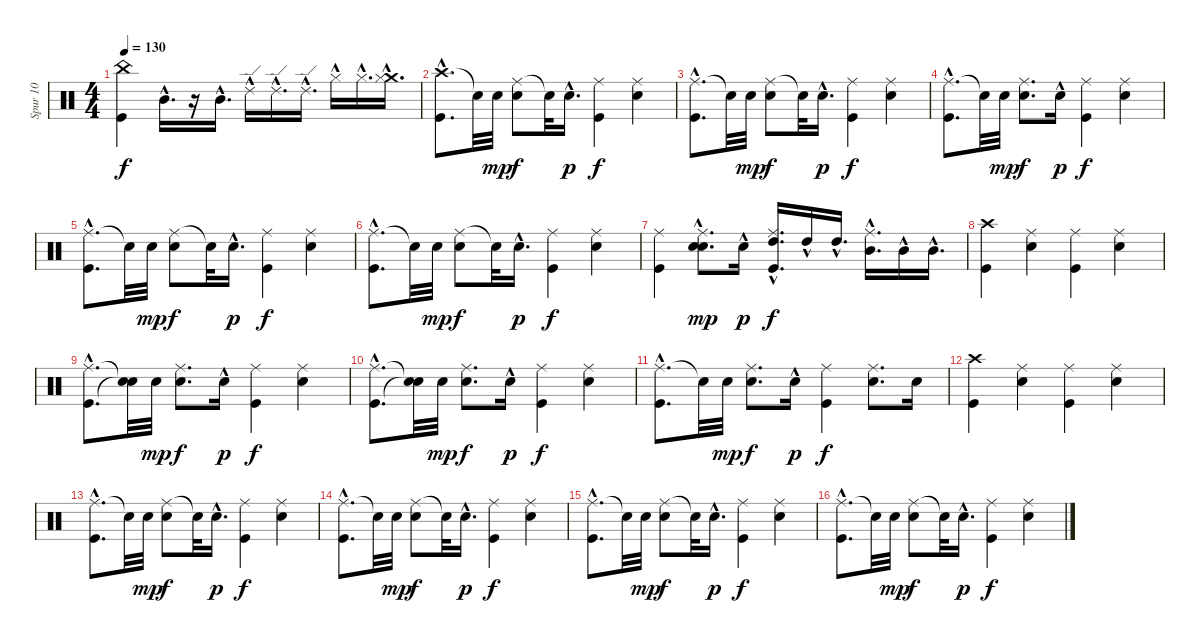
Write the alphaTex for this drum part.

\track ("Spur 10" "Spur 10") {instrument percussion}
\staff {score}
\articulation defaults
\ts (4 4)
\tempo 130
\clef neutral
\ks c
("China (hit)" "Kick (hit)").4{dy f} "Mid Tom (hit)"{hac}.16{d} r.16 "Mid Tom (hit)"{hac}.16{d} "Ride (edge) 2"{hac}.16 "Ride (edge) 2"{hac}.16{d} "Ride (edge) 2"{hac}.16{d} "Hi-Hat (closed)"{hac}.16 "Hi-Hat (closed)"{hac}.16{d} ("Crash medium (hit)" "Hi-Hat (closed)"{hac}).16{d} |
("Crash high (hit)" "Kick (hit)"{hac}).8{d} "Snare (hit)"{t}.32 "Electric Snare (hit)".32{dy mp} ("Ride (middle)" "Electric Snare (hit)").8{dy f} "Snare (hit)"{t}.32 "Electric Snare (hit)"{hac}.16{d dy p} ("Ride (middle)" "Kick (hit)").4{dy f} ("Ride (middle)" "Electric Snare (hit)").4 |
("Ride (middle)" "Kick (hit)"{hac}).8{d} "Snare (hit)"{t}.32 "Electric Snare (hit)".32{dy mp} ("Ride (middle)" "Electric Snare (hit)").8{dy f} "Snare (hit)"{t}.32 "Electric Snare (hit)"{hac}.16{d dy p} ("Ride (middle)" "Kick (hit)").4{dy f} ("Ride (middle)" "Electric Snare (hit)").4 |
("Ride (middle)" "Kick (hit)"{hac}).8{d} "Snare (hit)"{t}.32 "Electric Snare (hit)".32{dy mp} ("Ride (middle)" "Electric Snare (hit)").8{d dy f} "Electric Snare (hit)"{hac}.16{dy p} ("Ride (middle)" "Kick (hit)").4{dy f} ("Ride (middle)" "Electric Snare (hit)").4 |
("Ride (middle)" "Kick (hit)"{hac}).8{d} "Snare (hit)"{t}.32 "Electric Snare (hit)".32{dy mp} ("Ride (middle)" "Electric Snare (hit)").8{dy f} "Snare (hit)"{t}.32 "Electric Snare (hit)"{hac}.16{d dy p} ("Ride (middle)" "Kick (hit)").4{dy f} ("Ride (middle)" "Electric Snare (hit)").4 |
("Ride (middle)" "Kick (hit)"{hac}).8{d} "Snare (hit)"{t}.32 "Electric Snare (hit)".32{dy mp} ("Ride (middle)" "Electric Snare (hit)").8{dy f} "Snare (hit)"{t}.32 "Electric Snare (hit)"{hac}.16{d dy p} ("Ride (middle)" "Kick (hit)").4{dy f} ("Ride (middle)" "Electric Snare (hit)").4 |
("Ride (middle)" "Kick (hit)").4 ("Electric Snare (hit)"{hac} "Ride (middle)" "Electric Snare (hit)").8{d dy mp} "Electric Snare (hit)"{hac}.16{dy p} ("High Tom (hit)"{hac} "Ride (middle)" "Kick (hit)").16{d dy f} "High Tom (hit)"{hac}.16 "High Tom (hit)"{hac}.16{d} ("Mid Tom (hit)"{hac} "Ride (middle)").16{d} "Mid Tom (hit)"{hac}.16 "Mid Tom (hit)"{hac}.16{d} |
("Crash high (hit)" "Kick (hit)").4 ("Ride (middle)" "Electric Snare (hit)").4 ("Ride (middle)" "Kick (hit)").4 ("Ride (middle)" "Electric Snare (hit)").4 |
("Ride (middle)"{hac} "Kick (hit)"{hac}).8{d} ("Snare (hit)"{t} "Snare (hit)"{t}).32 "Electric Snare (hit)".32{dy mp} ("Ride (middle)" "Electric Snare (hit)").8{d dy f} "Electric Snare (hit)"{hac}.16{dy p} ("Ride (middle)" "Kick (hit)").4{dy f} ("Ride (middle)" "Electric Snare (hit)").4 |
("Ride (middle)"{hac} "Kick (hit)"{hac}).8{d} ("Snare (hit)"{t} "Snare (hit)"{t}).32 "Electric Snare (hit)".32{dy mp} ("Ride (middle)" "Electric Snare (hit)").8{d dy f} "Electric Snare (hit)"{hac}.16{dy p} ("Ride (middle)" "Kick (hit)").4{dy f} ("Ride (middle)" "Electric Snare (hit)").4 |
("Ride (middle)" "Kick (hit)"{hac}).8{d} "Snare (hit)"{t}.32 "Electric Snare (hit)".32{dy mp} ("Ride (middle)" "Electric Snare (hit)").8{d dy f} "Electric Snare (hit)"{hac}.16{dy p} ("Ride (middle)" "Kick (hit)").4{dy f} ("Ride (middle)" "Electric Snare (hit)").8{d} "Electric Snare (hit)".16 |
("Crash high (hit)" "Kick (hit)").4 ("Ride (middle)" "Electric Snare (hit)").4 ("Ride (middle)" "Kick (hit)").4 ("Ride (middle)" "Electric Snare (hit)").4 |
("Ride (middle)" "Kick (hit)"{hac}).8{d} "Snare (hit)"{t}.32 "Electric Snare (hit)".32{dy mp} ("Ride (middle)" "Electric Snare (hit)").8{dy f} "Snare (hit)"{t}.32 "Electric Snare (hit)"{hac}.16{d dy p} ("Ride (middle)" "Kick (hit)").4{dy f} ("Ride (middle)" "Electric Snare (hit)").4 |
("Ride (middle)" "Kick (hit)"{hac}).8{d} "Snare (hit)"{t}.32 "Electric Snare (hit)".32{dy mp} ("Ride (middle)" "Electric Snare (hit)").8{dy f} "Snare (hit)"{t}.32 "Electric Snare (hit)"{hac}.16{d dy p} ("Ride (middle)" "Kick (hit)").4{dy f} ("Ride (middle)" "Electric Snare (hit)").4 |
("Ride (middle)" "Kick (hit)"{hac}).8{d} "Snare (hit)"{t}.32 "Electric Snare (hit)".32{dy mp} ("Ride (middle)" "Electric Snare (hit)").8{dy f} "Snare (hit)"{t}.32 "Electric Snare (hit)"{hac}.16{d dy p} ("Ride (middle)" "Kick (hit)").4{dy f} ("Ride (middle)" "Electric Snare (hit)").4 |
("Ride (middle)" "Kick (hit)"{hac}).8{d} "Snare (hit)"{t}.32 "Electric Snare (hit)".32{dy mp} ("Ride (middle)" "Electric Snare (hit)").8{dy f} "Snare (hit)"{t}.32 "Electric Snare (hit)"{hac}.16{d dy p} ("Ride (middle)" "Kick (hit)").4{dy f} ("Ride (middle)" "Electric Snare (hit)").4
